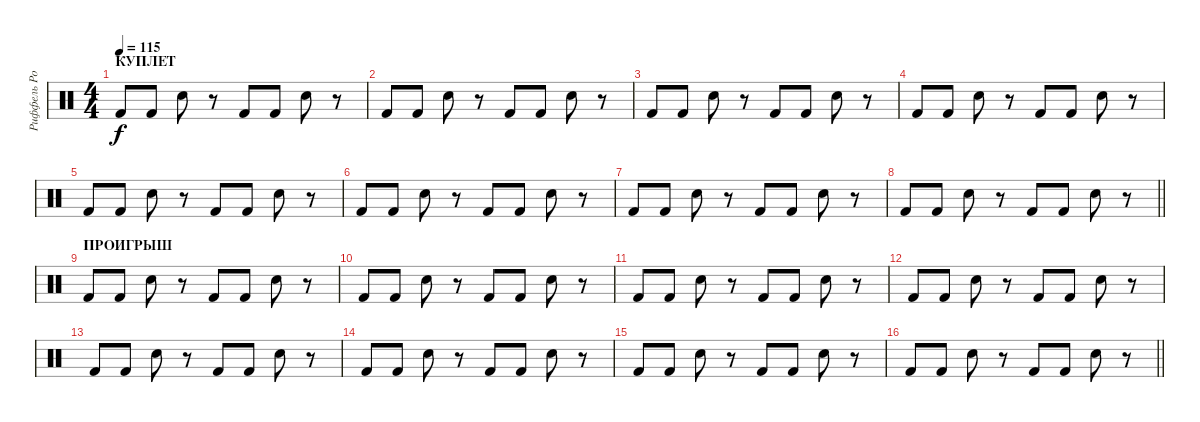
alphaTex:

\track ("Риффель Роман (главные)" "Риффель Ро") {instrument percussion}
\staff {score}
\articulation defaults
\ts (4 4)
\section ("" "КУПЛЕТ")
\tempo 115
\clef neutral
\ks c "Kick (hit) 2".8{dy f} "Kick (hit) 2".8 "Electric Snare (hit)".8
r.8 "Kick (hit) 2".8 "Kick (hit) 2".8 "Electric Snare (hit)".8 r.8 |
"Kick (hit) 2".8 "Kick (hit) 2".8 "Electric Snare (hit)".8 r.8 "Kick (hit) 2".8 "Kick (hit) 2".8 "Electric Snare (hit)".8 r.8 |
"Kick (hit) 2".8 "Kick (hit) 2".8 "Electric Snare (hit)".8 r.8 "Kick (hit) 2".8 "Kick (hit) 2".8 "Electric Snare (hit)".8 r.8 |
"Kick (hit) 2".8 "Kick (hit) 2".8 "Electric Snare (hit)".8 r.8 "Kick (hit) 2".8 "Kick (hit) 2".8 "Electric Snare (hit)".8 r.8 |
"Kick (hit) 2".8 "Kick (hit) 2".8 "Electric Snare (hit)".8 r.8 "Kick (hit) 2".8 "Kick (hit) 2".8 "Electric Snare (hit)".8 r.8 |
"Kick (hit) 2".8 "Kick (hit) 2".8 "Electric Snare (hit)".8 r.8 "Kick (hit) 2".8 "Kick (hit) 2".8 "Electric Snare (hit)".8 r.8 |
"Kick (hit) 2".8 "Kick (hit) 2".8 "Electric Snare (hit)".8 r.8 "Kick (hit) 2".8 "Kick (hit) 2".8 "Electric Snare (hit)".8 r.8 |
\barLineRight lightlight "Kick (hit) 2".8 "Kick (hit) 2".8 "Electric Snare (hit)".8
r.8 "Kick (hit) 2".8 "Kick (hit) 2".8 "Electric Snare (hit)".8 r.8 |
\section ("" "ПРОИГРЫШ")
"Kick (hit) 2".8 "Kick (hit) 2".8 "Electric Snare (hit)".8 r.8 "Kick (hit) 2".8 "Kick (hit) 2".8 "Electric Snare (hit)".8 r.8 |
"Kick (hit) 2".8 "Kick (hit) 2".8 "Electric Snare (hit)".8 r.8 "Kick (hit) 2".8 "Kick (hit) 2".8 "Electric Snare (hit)".8 r.8 |
"Kick (hit) 2".8 "Kick (hit) 2".8 "Electric Snare (hit)".8 r.8 "Kick (hit) 2".8 "Kick (hit) 2".8 "Electric Snare (hit)".8 r.8 |
"Kick (hit) 2".8 "Kick (hit) 2".8 "Electric Snare (hit)".8 r.8 "Kick (hit) 2".8 "Kick (hit) 2".8 "Electric Snare (hit)".8 r.8 |
"Kick (hit) 2".8 "Kick (hit) 2".8 "Electric Snare (hit)".8 r.8 "Kick (hit) 2".8 "Kick (hit) 2".8 "Electric Snare (hit)".8 r.8 |
"Kick (hit) 2".8 "Kick (hit) 2".8 "Electric Snare (hit)".8 r.8 "Kick (hit) 2".8 "Kick (hit) 2".8 "Electric Snare (hit)".8 r.8 |
"Kick (hit) 2".8 "Kick (hit) 2".8 "Electric Snare (hit)".8 r.8 "Kick (hit) 2".8 "Kick (hit) 2".8 "Electric Snare (hit)".8 r.8 |
\barLineRight lightlight "Kick (hit) 2".8 "Kick (hit) 2".8 "Electric Snare (hit)".8
r.8 "Kick (hit) 2".8 "Kick (hit) 2".8 "Electric Snare (hit)".8 r.8
